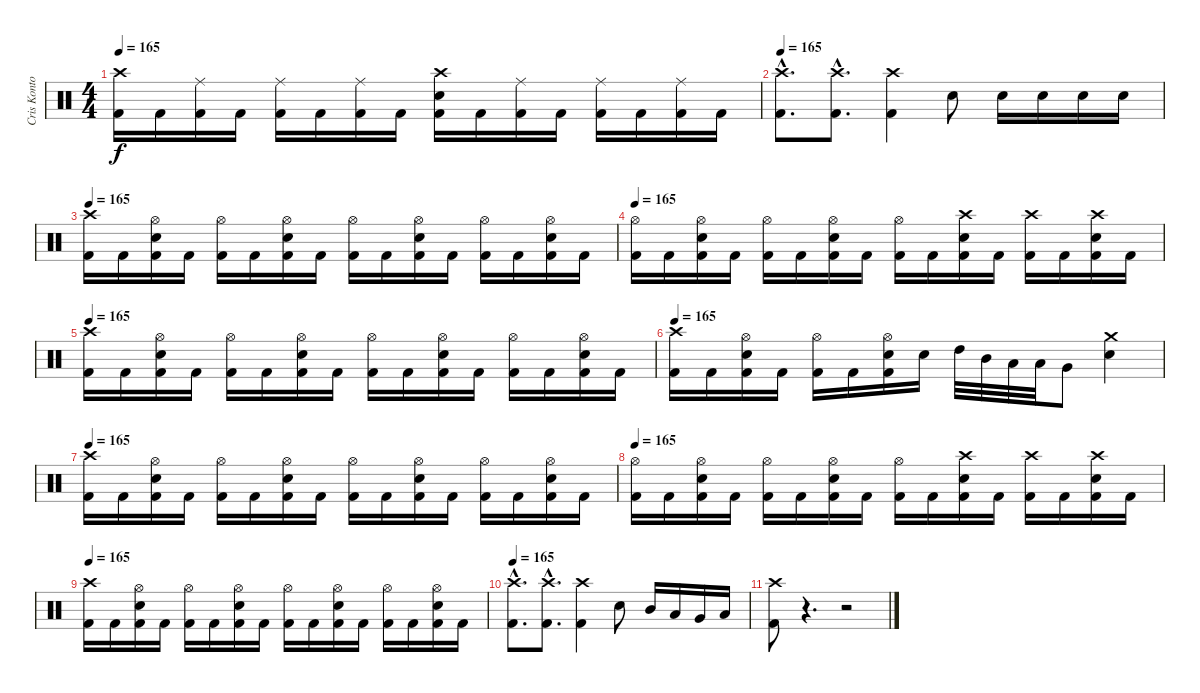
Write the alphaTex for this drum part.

\track ("Cris Kontos" "Cris Konto") {instrument percussion}
\staff {score}
\articulation defaults
\ts (4 4)
\tempo 165
\clef neutral
\ks c
("Crash high (hit)" "Kick (hit) 2").16{dy f} "Kick (hit) 2".16 ("Ride (middle)" "Kick (hit) 2").16 "Kick (hit) 2".16 ("Ride (middle)" "Kick (hit) 2").16 "Kick (hit) 2".16 ("Ride (middle)" "Kick (hit) 2").16 "Kick (hit) 2".16 ("Crash high (hit)" "Electric Snare (hit)" "Kick (hit) 2").16 "Kick (hit) 2".16 ("Ride (middle)" "Kick (hit) 2").16 "Kick (hit) 2".16 ("Ride (middle)" "Kick (hit) 2").16 "Kick (hit) 2".16 ("Ride (middle)" "Kick (hit) 2").16 "Kick (hit) 2".16 |
\tempo 165
("Crash high (hit)"{hac} "Kick (hit) 2"{hac}).8{d} ("Crash high (hit)"{hac} "Kick (hit) 2"{hac}).8{d} ("Crash high (hit)" "Kick (hit) 2").4 "Electric Snare (hit)".8 "Electric Snare (hit)".16 "Electric Snare (hit)".16 "Electric Snare (hit)".16 "Electric Snare (hit)".16 |
\tempo 165
("Crash high (hit)" "Kick (hit) 2").16 "Kick (hit) 2".16 ("Hi-Hat (open)" "Electric Snare (hit)" "Kick (hit) 2").16 "Kick (hit) 2".16 ("Hi-Hat (open)" "Kick (hit) 2").16 "Kick (hit) 2".16 ("Hi-Hat (open)" "Electric Snare (hit)" "Kick (hit) 2").16 "Kick (hit) 2".16 ("Hi-Hat (open)" "Kick (hit) 2").16 "Kick (hit) 2".16 ("Hi-Hat (open)" "Electric Snare (hit)" "Kick (hit) 2").16 "Kick (hit) 2".16 ("Hi-Hat (open)" "Kick (hit) 2").16 "Kick (hit) 2".16 ("Hi-Hat (open)" "Electric Snare (hit)" "Kick (hit) 2").16 "Kick (hit) 2".16 |
\tempo 165
("Hi-Hat (open)" "Kick (hit) 2").16 "Kick (hit) 2".16 ("Hi-Hat (open)" "Electric Snare (hit)" "Kick (hit) 2").16 "Kick (hit) 2".16 ("Hi-Hat (open)" "Kick (hit) 2").16 "Kick (hit) 2".16 ("Hi-Hat (open)" "Electric Snare (hit)" "Kick (hit) 2").16 "Kick (hit) 2".16 ("Hi-Hat (open)" "Kick (hit) 2").16 "Kick (hit) 2".16 ("Crash high (hit)" "Electric Snare (hit)" "Kick (hit) 2").16 "Kick (hit) 2".16 ("Crash high (hit)" "Kick (hit) 2").16 "Kick (hit) 2".16 ("Crash high (hit)" "Electric Snare (hit)" "Kick (hit) 2").16 "Kick (hit) 2".16 |
\tempo 165
("Crash high (hit)" "Kick (hit) 2").16 "Kick (hit) 2".16 ("Hi-Hat (open)" "Electric Snare (hit)" "Kick (hit) 2").16 "Kick (hit) 2".16 ("Hi-Hat (open)" "Kick (hit) 2").16 "Kick (hit) 2".16 ("Hi-Hat (open)" "Electric Snare (hit)" "Kick (hit) 2").16 "Kick (hit) 2".16 ("Hi-Hat (open)" "Kick (hit) 2").16 "Kick (hit) 2".16 ("Hi-Hat (open)" "Electric Snare (hit)" "Kick (hit) 2").16 "Kick (hit) 2".16 ("Hi-Hat (open)" "Kick (hit) 2").16 "Kick (hit) 2".16 ("Hi-Hat (open)" "Electric Snare (hit)" "Kick (hit) 2").16 "Kick (hit) 2".16 |
\tempo 165
("Crash high (hit)" "Kick (hit) 2").16 "Kick (hit) 2".16 ("Hi-Hat (open)" "Electric Snare (hit)" "Kick (hit) 2").16 "Kick (hit) 2".16 ("Hi-Hat (open)" "Kick (hit) 2").16 "Kick (hit) 2".16 ("Hi-Hat (open)" "Electric Snare (hit)" "Kick (hit) 2").16 "Electric Snare (hit)".16 "High Tom (hit)".32 "Mid Tom (hit)".32 "Low Tom (hit)".32 "Low Tom (hit)".32 "Very Low Tom (hit)".8 ("Crash medium (hit)" "Electric Snare (hit)").4 |
\tempo 165
("Crash high (hit)" "Kick (hit) 2").16 "Kick (hit) 2".16 ("Hi-Hat (open)" "Electric Snare (hit)" "Kick (hit) 2").16 "Kick (hit) 2".16 ("Hi-Hat (open)" "Kick (hit) 2").16 "Kick (hit) 2".16 ("Hi-Hat (open)" "Electric Snare (hit)" "Kick (hit) 2").16 "Kick (hit) 2".16 ("Hi-Hat (open)" "Kick (hit) 2").16 "Kick (hit) 2".16 ("Hi-Hat (open)" "Electric Snare (hit)" "Kick (hit) 2").16 "Kick (hit) 2".16 ("Hi-Hat (open)" "Kick (hit) 2").16 "Kick (hit) 2".16 ("Hi-Hat (open)" "Electric Snare (hit)" "Kick (hit) 2").16 "Kick (hit) 2".16 |
\tempo 165
("Hi-Hat (open)" "Kick (hit) 2").16 "Kick (hit) 2".16 ("Hi-Hat (open)" "Electric Snare (hit)" "Kick (hit) 2").16 "Kick (hit) 2".16 ("Hi-Hat (open)" "Kick (hit) 2").16 "Kick (hit) 2".16 ("Hi-Hat (open)" "Electric Snare (hit)" "Kick (hit) 2").16 "Kick (hit) 2".16 ("Hi-Hat (open)" "Kick (hit) 2").16 "Kick (hit) 2".16 ("Crash high (hit)" "Electric Snare (hit)" "Kick (hit) 2").16 "Kick (hit) 2".16 ("Crash high (hit)" "Kick (hit) 2").16 "Kick (hit) 2".16 ("Crash high (hit)" "Electric Snare (hit)" "Kick (hit) 2").16 "Kick (hit) 2".16 |
\tempo 165
("Crash high (hit)" "Kick (hit) 2").16 "Kick (hit) 2".16 ("Hi-Hat (open)" "Electric Snare (hit)" "Kick (hit) 2").16 "Kick (hit) 2".16 ("Hi-Hat (open)" "Kick (hit) 2").16 "Kick (hit) 2".16 ("Hi-Hat (open)" "Electric Snare (hit)" "Kick (hit) 2").16 "Kick (hit) 2".16 ("Hi-Hat (open)" "Kick (hit) 2").16 "Kick (hit) 2".16 ("Hi-Hat (open)" "Electric Snare (hit)" "Kick (hit) 2").16 "Kick (hit) 2".16 ("Hi-Hat (open)" "Kick (hit) 2").16 "Kick (hit) 2".16 ("Hi-Hat (open)" "Electric Snare (hit)" "Kick (hit) 2").16 "Kick (hit) 2".16 |
\tempo 165
("Crash high (hit)"{hac} "Kick (hit) 2"{hac}).8{d} ("Crash high (hit)"{hac} "Kick (hit) 2"{hac}).8{d} ("Crash high (hit)" "Kick (hit) 2").4 "Electric Snare (hit)".8 "Mid Tom (hit)".16 "Low Tom (hit)".16 "Very Low Tom (hit)".16 "Low Floor Tom (hit)".16 |
("Crash high (hit)" "Kick (hit) 2").8 r.4{d} r.2
